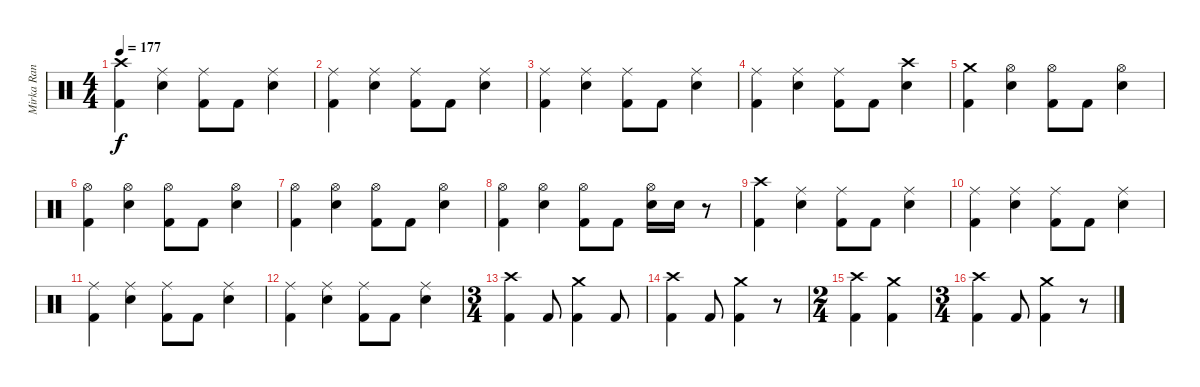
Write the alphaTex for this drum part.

\track (" Mirka Rantanen" " Mirka Ran") {instrument percussion}
\staff {score}
\articulation defaults
\ts (4 4)
\tempo 177
\clef neutral
\ks c
("Crash high (hit)" "Kick (hit) 2").4{dy f} ("Ride (middle)" "Electric Snare (hit)").4 ("Ride (middle)" "Kick (hit) 2").8 "Kick (hit) 2".8 ("Ride (middle)" "Electric Snare (hit)").4 |
("Ride (middle)" "Kick (hit) 2").4 ("Ride (middle)" "Electric Snare (hit)").4 ("Ride (middle)" "Kick (hit) 2").8 "Kick (hit) 2".8 ("Ride (middle)" "Electric Snare (hit)").4 |
("Ride (middle)" "Kick (hit) 2").4 ("Ride (middle)" "Electric Snare (hit)").4 ("Ride (middle)" "Kick (hit) 2").8 "Kick (hit) 2".8 ("Ride (middle)" "Electric Snare (hit)").4 |
("Ride (middle)" "Kick (hit) 2").4 ("Ride (middle)" "Electric Snare (hit)").4 ("Ride (middle)" "Kick (hit) 2").8 "Kick (hit) 2".8 ("Crash high (hit)" "Electric Snare (hit)").4 |
("Crash medium (hit)" "Kick (hit) 2").4 ("Hi-Hat (open)" "Electric Snare (hit)").4 ("Hi-Hat (open)" "Kick (hit) 2").8 "Kick (hit) 2".8 ("Hi-Hat (open)" "Electric Snare (hit)").4 |
("Hi-Hat (open)" "Kick (hit) 2").4 ("Hi-Hat (open)" "Electric Snare (hit)").4 ("Hi-Hat (open)" "Kick (hit) 2").8 "Kick (hit) 2".8 ("Hi-Hat (open)" "Electric Snare (hit)").4 |
("Hi-Hat (open)" "Kick (hit) 2").4 ("Hi-Hat (open)" "Electric Snare (hit)").4 ("Hi-Hat (open)" "Kick (hit) 2").8 "Kick (hit) 2".8 ("Hi-Hat (open)" "Electric Snare (hit)").4 |
("Hi-Hat (open)" "Kick (hit) 2").4 ("Hi-Hat (open)" "Electric Snare (hit)").4 ("Hi-Hat (open)" "Kick (hit) 2").8 "Kick (hit) 2".8 ("Hi-Hat (open)" "Electric Snare (hit)").16 "Electric Snare (hit)".16 r.8 |
("Crash high (hit)" "Kick (hit) 2").4 ("Ride (middle)" "Electric Snare (hit)").4 ("Ride (middle)" "Kick (hit) 2").8 "Kick (hit) 2".8 ("Ride (middle)" "Electric Snare (hit)").4 |
("Ride (middle)" "Kick (hit) 2").4 ("Ride (middle)" "Electric Snare (hit)").4 ("Ride (middle)" "Kick (hit) 2").8 "Kick (hit) 2".8 ("Ride (middle)" "Electric Snare (hit)").4 |
("Ride (middle)" "Kick (hit) 2").4 ("Ride (middle)" "Electric Snare (hit)").4 ("Ride (middle)" "Kick (hit) 2").8 "Kick (hit) 2".8 ("Ride (middle)" "Electric Snare (hit)").4 |
("Ride (middle)" "Kick (hit) 2").4 ("Ride (middle)" "Electric Snare (hit)").4 ("Ride (middle)" "Kick (hit) 2").8 "Kick (hit) 2".8 ("Ride (middle)" "Electric Snare (hit)").4 |
\ts (3 4)
("Crash high (hit)" "Kick (hit) 2").4 "Kick (hit) 2".8 ("Crash medium (hit)" "Kick (hit) 2").4 "Kick (hit) 2".8 |
("Crash high (hit)" "Kick (hit) 2").4 "Kick (hit) 2".8 ("Crash medium (hit)" "Kick (hit) 2").4 r.8 |
\ts (2 4)
("Crash high (hit)" "Kick (hit) 2").4 ("Crash medium (hit)" "Kick (hit) 2").4 |
\ts (3 4)
("Crash high (hit)" "Kick (hit) 2").4 "Kick (hit) 2".8 ("Crash medium (hit)" "Kick (hit) 2").4 r.8
